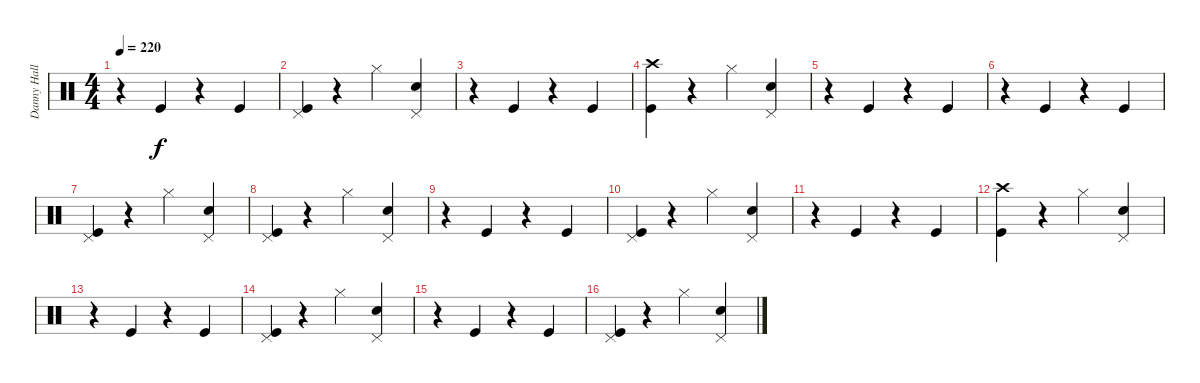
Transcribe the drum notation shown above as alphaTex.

\track ("Danny Hall" "Danny Hall") {instrument percussion}
\staff {score}
\articulation defaults
\ts (4 4)
\tempo 220
\clef neutral
\ks c
r.4{dy f} "Kick (hit)".4 r.4 "Kick (hit)".4 |
("Pedal Hi-Hat (hit)" "Kick (hit)").4 r.4 "Hi-Hat (closed)".4 ("Pedal Hi-Hat (hit)" "Snare (hit) 2").4 |
r.4 "Kick (hit)".4 r.4 "Kick (hit)".4 |
("Crash high (hit)" "Kick (hit)").4 r.4 "Hi-Hat (closed)".4 ("Pedal Hi-Hat (hit)" "Snare (hit) 2").4 |
r.4 "Kick (hit)".4 r.4 "Kick (hit)".4 |
r.4 "Kick (hit)".4 r.4 "Kick (hit)".4 |
("Pedal Hi-Hat (hit)" "Kick (hit)").4 r.4 "Hi-Hat (closed)".4 ("Pedal Hi-Hat (hit)" "Snare (hit) 2").4 |
("Pedal Hi-Hat (hit)" "Kick (hit)").4 r.4 "Hi-Hat (closed)".4 ("Pedal Hi-Hat (hit)" "Snare (hit) 2").4 |
r.4 "Kick (hit)".4 r.4 "Kick (hit)".4 |
("Pedal Hi-Hat (hit)" "Kick (hit)").4 r.4 "Hi-Hat (closed)".4 ("Pedal Hi-Hat (hit)" "Snare (hit) 2").4 |
r.4 "Kick (hit)".4 r.4 "Kick (hit)".4 |
("Crash high (hit)" "Kick (hit)").4 r.4 "Hi-Hat (closed)".4 ("Pedal Hi-Hat (hit)" "Snare (hit) 2").4 |
r.4 "Kick (hit)".4 r.4 "Kick (hit)".4 |
("Pedal Hi-Hat (hit)" "Kick (hit)").4 r.4 "Hi-Hat (closed)".4 ("Pedal Hi-Hat (hit)" "Snare (hit) 2").4 |
r.4 "Kick (hit)".4 r.4 "Kick (hit)".4 |
("Pedal Hi-Hat (hit)" "Kick (hit)").4 r.4 "Hi-Hat (closed)".4 ("Pedal Hi-Hat (hit)" "Snare (hit) 2").4
